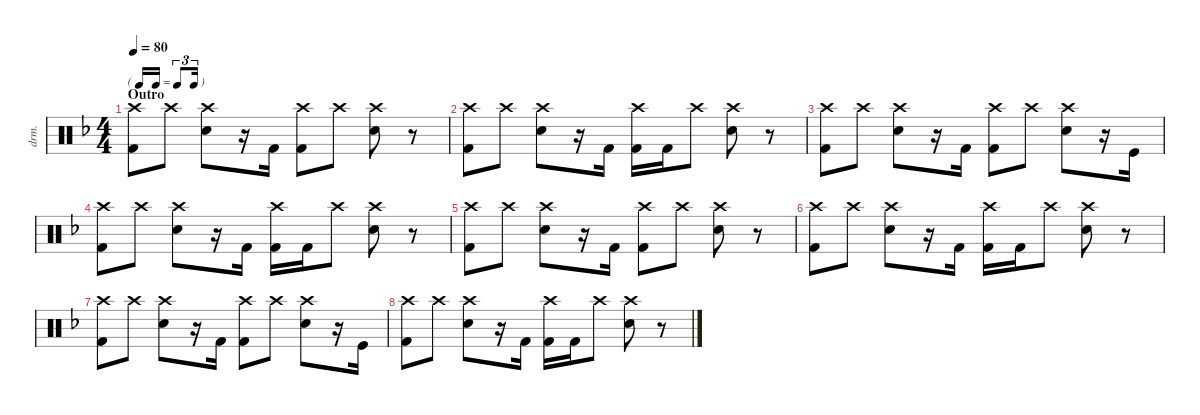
\defaultSystemsLayout 4
\hideDynamics
\bracketExtendMode nobrackets
\otherSystemsTrackNameOrientation horizontal
\track ("Drumkit" "drm.") {instrument percussion}
\staff {score}
\articulation defaults
\ts (4 4)
\tf triplet16th
\section ("" "Outro")
\tempo 80
\clef neutral
\ks dminor
("Kick (hit) 2"{acc forcenatural} "Crash high (hit)"{acc forcenatural}).8{dy mf beam Down} "Crash high (hit)"{acc forcenatural}.8{beam Down} ("Snare (hit) 2"{acc forcenatural} "Crash high (hit)"{acc forcenatural}).8{beam Down} r.16{beam Down} "Kick (hit) 2"{acc forcenatural}.16{beam Down} ("Kick (hit) 2"{acc forcenatural} "Crash high (hit)"{acc forcenatural}).8{beam Down} "Crash high (hit)"{acc forcenatural}.8{beam Down} ("Snare (hit) 2"{acc forcenatural} "Crash high (hit)"{acc forcenatural}).8{beam Down} r.8{beam Down} |
("Kick (hit) 2"{acc forcenatural} "Crash high (hit)"{acc forcenatural}).8{beam Down} "Crash high (hit)"{acc forcenatural}.8{beam Down} ("Snare (hit) 2"{acc forcenatural} "Crash high (hit)"{acc forcenatural}).8{beam Down} r.16{beam Down} "Kick (hit) 2"{acc forcenatural}.16{beam Down} ("Kick (hit) 2"{acc forcenatural} "Crash high (hit)"{acc forcenatural}).16{beam Down} "Kick (hit) 2"{acc forcenatural}.16{beam Down} "Crash high (hit)"{acc forcenatural}.8{beam Down} ("Snare (hit) 2"{acc forcenatural} "Crash high (hit)"{acc forcenatural}).8{beam Down} r.8{beam Down} |
("Kick (hit) 2"{acc forcenatural} "Crash high (hit)"{acc forcenatural}).8{beam Down} "Crash high (hit)"{acc forcenatural}.8{beam Down} ("Snare (hit) 2"{acc forcenatural} "Crash high (hit)"{acc forcenatural}).8{beam Down} r.16{beam Down} "Kick (hit) 2"{acc forcenatural}.16{beam Down} ("Kick (hit) 2"{acc forcenatural} "Crash high (hit)"{acc forcenatural}).8{beam Down} "Crash high (hit)"{acc forcenatural}.8{beam Down} ("Snare (hit) 2"{acc forcenatural} "Crash high (hit)"{acc forcenatural}).8{beam Down} r.16{beam Down} "Kick (hit)"{acc forcenatural}.16{beam Down} |
("Kick (hit) 2"{acc forcenatural} "Crash high (hit)"{acc forcenatural}).8{beam Down} "Crash high (hit)"{acc forcenatural}.8{beam Down} ("Snare (hit) 2"{acc forcenatural} "Crash high (hit)"{acc forcenatural}).8{beam Down} r.16{beam Down} "Kick (hit) 2"{acc forcenatural}.16{beam Down} ("Kick (hit) 2"{acc forcenatural} "Crash high (hit)"{acc forcenatural}).16{beam Down} "Kick (hit) 2"{acc forcenatural}.16{beam Down} "Crash high (hit)"{acc forcenatural}.8{beam Down} ("Snare (hit) 2"{acc forcenatural} "Crash high (hit)"{acc forcenatural}).8{beam Down} r.8{beam Down} |
("Kick (hit) 2"{acc forcenatural} "Crash high (hit)"{acc forcenatural}).8{beam Down} "Crash high (hit)"{acc forcenatural}.8{beam Down} ("Snare (hit) 2"{acc forcenatural} "Crash high (hit)"{acc forcenatural}).8{beam Down} r.16{beam Down} "Kick (hit) 2"{acc forcenatural}.16{beam Down} ("Kick (hit) 2"{acc forcenatural} "Crash high (hit)"{acc forcenatural}).8{beam Down} "Crash high (hit)"{acc forcenatural}.8{beam Down} ("Snare (hit) 2"{acc forcenatural} "Crash high (hit)"{acc forcenatural}).8{beam Down} r.8{beam Down} |
("Kick (hit) 2"{acc forcenatural} "Crash high (hit)"{acc forcenatural}).8{beam Down} "Crash high (hit)"{acc forcenatural}.8{beam Down} ("Snare (hit) 2"{acc forcenatural} "Crash high (hit)"{acc forcenatural}).8{beam Down} r.16{beam Down} "Kick (hit) 2"{acc forcenatural}.16{beam Down} ("Kick (hit) 2"{acc forcenatural} "Crash high (hit)"{acc forcenatural}).16{beam Down} "Kick (hit) 2"{acc forcenatural}.16{beam Down} "Crash high (hit)"{acc forcenatural}.8{beam Down} ("Snare (hit) 2"{acc forcenatural} "Crash high (hit)"{acc forcenatural}).8{beam Down} r.8{beam Down} |
("Kick (hit) 2"{acc forcenatural} "Crash high (hit)"{acc forcenatural}).8{beam Down} "Crash high (hit)"{acc forcenatural}.8{beam Down} ("Snare (hit) 2"{acc forcenatural} "Crash high (hit)"{acc forcenatural}).8{beam Down} r.16{beam Down} "Kick (hit) 2"{acc forcenatural}.16{beam Down} ("Kick (hit) 2"{acc forcenatural} "Crash high (hit)"{acc forcenatural}).8{beam Down} "Crash high (hit)"{acc forcenatural}.8{beam Down} ("Snare (hit) 2"{acc forcenatural} "Crash high (hit)"{acc forcenatural}).8{beam Down} r.16{beam Down} "Kick (hit)"{acc forcenatural}.16{beam Down} |
("Kick (hit) 2"{acc forcenatural} "Crash high (hit)"{acc forcenatural}).8{beam Down} "Crash high (hit)"{acc forcenatural}.8{beam Down} ("Snare (hit) 2"{acc forcenatural} "Crash high (hit)"{acc forcenatural}).8{beam Down} r.16{beam Down} "Kick (hit) 2"{acc forcenatural}.16{beam Down} ("Kick (hit) 2"{acc forcenatural} "Crash high (hit)"{acc forcenatural}).16{beam Down} "Kick (hit) 2"{acc forcenatural}.16{beam Down} "Crash high (hit)"{acc forcenatural}.8{beam Down} ("Snare (hit) 2"{acc forcenatural} "Crash high (hit)"{acc forcenatural}).8{beam Down} r.8{beam Down}
